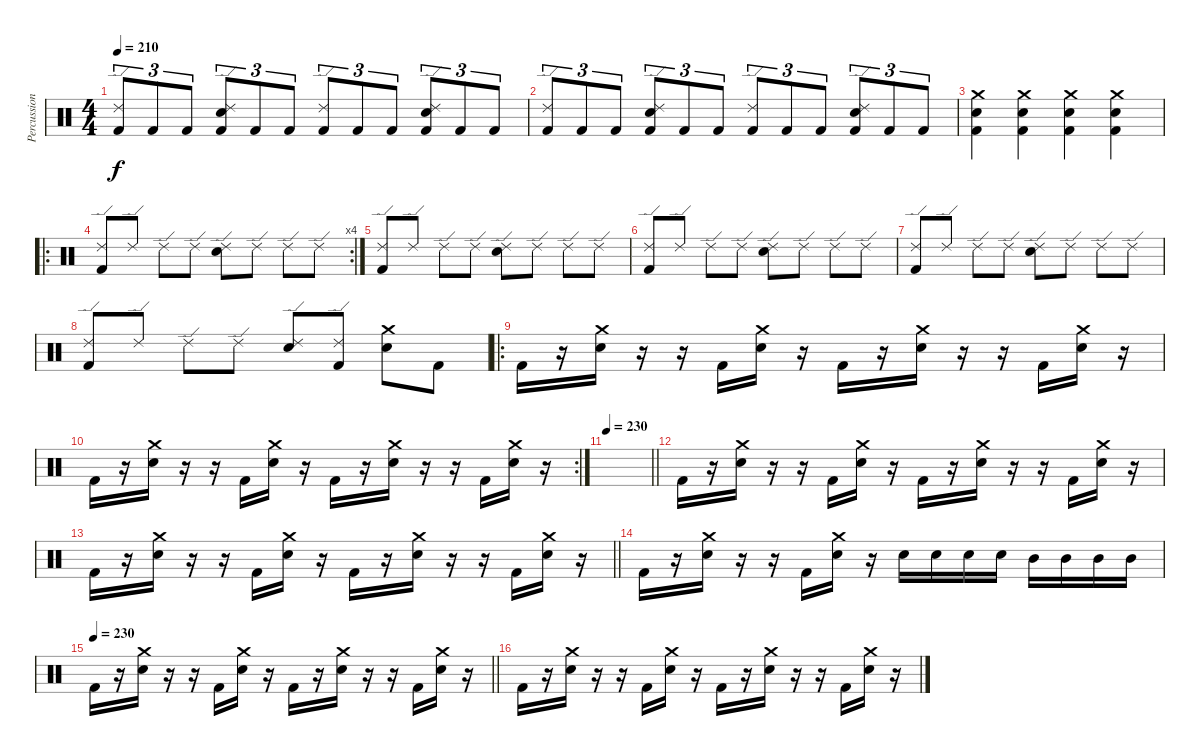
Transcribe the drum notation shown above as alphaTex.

\track ("Percussions" "Percussion") {instrument percussion}
\staff {score}
\articulation defaults
\ts (4 4)
\tempo 210
\clef neutral
\ks c
("Ride (edge) 2" "Kick (hit) 2").8{tu (3 2) dy f} "Kick (hit) 2".8{tu (3 2)} "Kick (hit) 2".8{tu (3 2)} ("Ride (edge) 2" "Electric Snare (hit)" "Kick (hit) 2").8{tu (3 2)} "Kick (hit) 2".8{tu (3 2)} "Kick (hit) 2".8{tu (3 2)} ("Ride (edge) 2" "Kick (hit) 2").8{tu (3 2)} "Kick (hit) 2".8{tu (3 2)} "Kick (hit) 2".8{tu (3 2)} ("Ride (edge) 2" "Electric Snare (hit)" "Kick (hit) 2").8{tu (3 2)} "Kick (hit) 2".8{tu (3 2)} "Kick (hit) 2".8{tu (3 2)} |
("Ride (edge) 2" "Kick (hit) 2").8{tu (3 2)} "Kick (hit) 2".8{tu (3 2)} "Kick (hit) 2".8{tu (3 2)} ("Ride (edge) 2" "Electric Snare (hit)" "Kick (hit) 2").8{tu (3 2)} "Kick (hit) 2".8{tu (3 2)} "Kick (hit) 2".8{tu (3 2)} ("Ride (edge) 2" "Kick (hit) 2").8{tu (3 2)} "Kick (hit) 2".8{tu (3 2)} "Kick (hit) 2".8{tu (3 2)} ("Ride (edge) 2" "Electric Snare (hit)" "Kick (hit) 2").8{tu (3 2)} "Kick (hit) 2".8{tu (3 2)} "Kick (hit) 2".8{tu (3 2)} |
("Crash medium (hit)" "Electric Snare (hit)" "Kick (hit) 2").4 ("Crash medium (hit)" "Electric Snare (hit)" "Kick (hit) 2").4 ("Crash medium (hit)" "Electric Snare (hit)" "Kick (hit) 2").4 ("Crash medium (hit)" "Electric Snare (hit)" "Kick (hit) 2").4 |
\ro
\rc 4
("Ride (edge) 2" "Kick (hit) 2").8 "Ride (edge) 2".8 "Ride (edge) 2".8 "Ride (edge) 2".8 ("Ride (edge) 2" "Electric Snare (hit)").8 "Ride (edge) 2".8 "Ride (edge) 2".8 "Ride (edge) 2".8 |
("Ride (edge) 2" "Kick (hit) 2").8 "Ride (edge) 2".8 "Ride (edge) 2".8 "Ride (edge) 2".8 ("Ride (edge) 2" "Electric Snare (hit)").8 "Ride (edge) 2".8 "Ride (edge) 2".8 "Ride (edge) 2".8 |
("Ride (edge) 2" "Kick (hit) 2").8 "Ride (edge) 2".8 "Ride (edge) 2".8 "Ride (edge) 2".8 ("Ride (edge) 2" "Electric Snare (hit)").8 "Ride (edge) 2".8 "Ride (edge) 2".8 "Ride (edge) 2".8 |
("Ride (edge) 2" "Kick (hit) 2").8 "Ride (edge) 2".8 "Ride (edge) 2".8 "Ride (edge) 2".8 ("Ride (edge) 2" "Electric Snare (hit)").8 "Ride (edge) 2".8 "Ride (edge) 2".8 "Ride (edge) 2".8 |
("Ride (edge) 2" "Kick (hit) 2").8 "Ride (edge) 2".8 "Ride (edge) 2".8 "Ride (edge) 2".8 ("Ride (edge) 2" "Electric Snare (hit)").8 ("Ride (edge) 2" "Kick (hit) 2").8 ("Crash medium (hit)" "Electric Snare (hit)").8 "Kick (hit) 2".8 |
\ro "Kick (hit) 2".16
r.16 ("Crash medium (hit)" "Electric Snare (hit)").16 r.16 r.16 "Kick (hit) 2".16 ("Crash medium (hit)" "Electric Snare (hit)").16 r.16 "Kick (hit) 2".16 r.16 ("Crash medium (hit)" "Electric Snare (hit)").16 r.16 r.16 "Kick (hit) 2".16 ("Crash medium (hit)" "Electric Snare (hit)").16 r.16 |
\rc 2 "Kick (hit) 2".16
r.16 ("Crash medium (hit)" "Electric Snare (hit)").16 r.16 r.16 "Kick (hit) 2".16 ("Crash medium (hit)" "Electric Snare (hit)").16 r.16 "Kick (hit) 2".16 r.16 ("Crash medium (hit)" "Electric Snare (hit)").16 r.16 r.16 "Kick (hit) 2".16 ("Crash medium (hit)" "Electric Snare (hit)").16 r.16 |
\tempo 230
\barLineRight lightlight
|
"Kick (hit) 2".16 r.16 ("Crash medium (hit)" "Electric Snare (hit)").16 r.16 r.16 "Kick (hit) 2".16 ("Crash medium (hit)" "Electric Snare (hit)").16 r.16 "Kick (hit) 2".16 r.16 ("Crash medium (hit)" "Electric Snare (hit)").16 r.16 r.16 "Kick (hit) 2".16 ("Crash medium (hit)" "Electric Snare (hit)").16 r.16 |
\barLineRight lightlight "Kick (hit) 2".16
r.16 ("Crash medium (hit)" "Electric Snare (hit)").16 r.16 r.16 "Kick (hit) 2".16 ("Crash medium (hit)" "Electric Snare (hit)").16 r.16 "Kick (hit) 2".16 r.16 ("Crash medium (hit)" "Electric Snare (hit)").16 r.16 r.16 "Kick (hit) 2".16 ("Crash medium (hit)" "Electric Snare (hit)").16 r.16 |
"Kick (hit) 2".16 r.16 ("Crash medium (hit)" "Electric Snare (hit)").16 r.16 r.16 "Kick (hit) 2".16 ("Crash medium (hit)" "Electric Snare (hit)").16 r.16 "Electric Snare (hit)".16 "Electric Snare (hit)".16 "Electric Snare (hit)".16 "Electric Snare (hit)".16 "Mid Tom (hit)".16 "Mid Tom (hit)".16 "Mid Tom (hit)".16 "Mid Tom (hit)".16 |
\tempo 230
\barLineRight lightlight "Kick (hit) 2".16
r.16 ("Crash medium (hit)" "Electric Snare (hit)").16 r.16 r.16 "Kick (hit) 2".16 ("Crash medium (hit)" "Electric Snare (hit)").16 r.16 "Kick (hit) 2".16 r.16 ("Crash medium (hit)" "Electric Snare (hit)").16 r.16 r.16 "Kick (hit) 2".16 ("Crash medium (hit)" "Electric Snare (hit)").16 r.16 |
"Kick (hit) 2".16 r.16 ("Crash medium (hit)" "Electric Snare (hit)").16 r.16 r.16 "Kick (hit) 2".16 ("Crash medium (hit)" "Electric Snare (hit)").16 r.16 "Kick (hit) 2".16 r.16 ("Crash medium (hit)" "Electric Snare (hit)").16 r.16 r.16 "Kick (hit) 2".16 ("Crash medium (hit)" "Electric Snare (hit)").16 r.16
